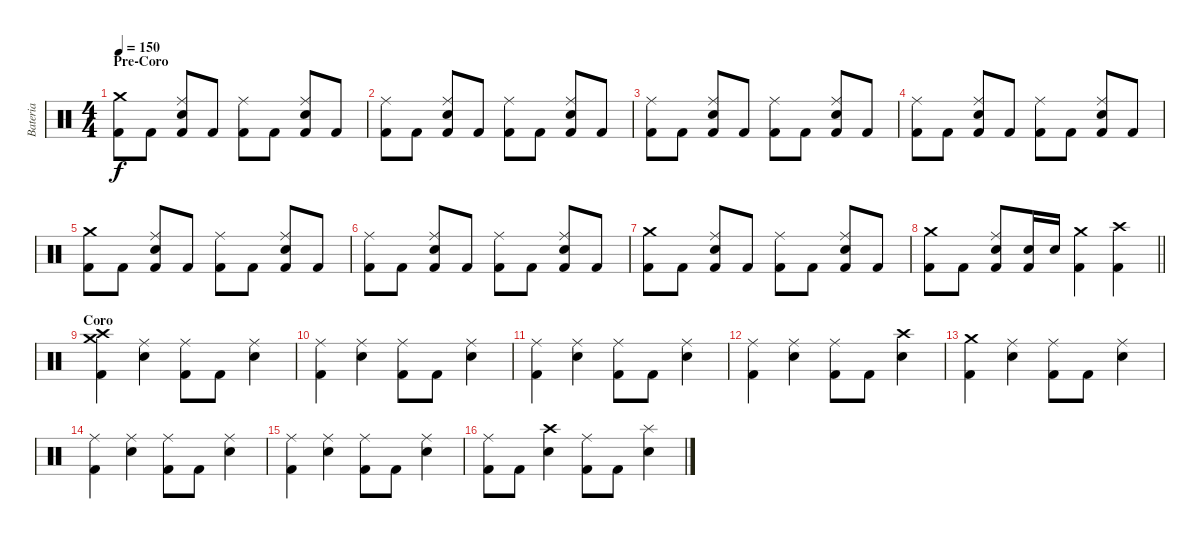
\track ("Bateria" "Bateria") {instrument percussion}
\staff {score}
\articulation defaults
\ts (4 4)
\section ("" "Pre-Coro")
\tempo 150
\clef neutral
\ks c
("Crash medium (hit)" "Kick (hit) 2").8{dy f} "Kick (hit) 2".8 ("Ride (middle)" "Snare (hit) 2" "Kick (hit) 2").8 "Kick (hit) 2".8 ("Ride (middle)" "Kick (hit) 2").8 "Kick (hit) 2".8 ("Ride (middle)" "Snare (hit) 2" "Kick (hit) 2").8 "Kick (hit) 2".8 |
("Ride (middle)" "Kick (hit) 2").8 "Kick (hit) 2".8 ("Ride (middle)" "Snare (hit) 2" "Kick (hit) 2").8 "Kick (hit) 2".8 ("Ride (middle)" "Kick (hit) 2").8 "Kick (hit) 2".8 ("Ride (middle)" "Snare (hit) 2" "Kick (hit) 2").8 "Kick (hit) 2".8 |
("Ride (middle)" "Kick (hit) 2").8 "Kick (hit) 2".8 ("Ride (middle)" "Snare (hit) 2" "Kick (hit) 2").8 "Kick (hit) 2".8 ("Ride (middle)" "Kick (hit) 2").8 "Kick (hit) 2".8 ("Ride (middle)" "Snare (hit) 2" "Kick (hit) 2").8 "Kick (hit) 2".8 |
("Ride (middle)" "Kick (hit) 2").8 "Kick (hit) 2".8 ("Ride (middle)" "Snare (hit) 2" "Kick (hit) 2").8 "Kick (hit) 2".8 ("Ride (middle)" "Kick (hit) 2").8 "Kick (hit) 2".8 ("Ride (middle)" "Snare (hit) 2" "Kick (hit) 2").8 "Kick (hit) 2".8 |
("Crash medium (hit)" "Kick (hit) 2").8 "Kick (hit) 2".8 ("Ride (middle)" "Snare (hit) 2" "Kick (hit) 2").8 "Kick (hit) 2".8 ("Ride (middle)" "Kick (hit) 2").8 "Kick (hit) 2".8 ("Ride (middle)" "Snare (hit) 2" "Kick (hit) 2").8 "Kick (hit) 2".8 |
("Ride (middle)" "Kick (hit) 2").8 "Kick (hit) 2".8 ("Ride (middle)" "Snare (hit) 2" "Kick (hit) 2").8 "Kick (hit) 2".8 ("Ride (middle)" "Kick (hit) 2").8 "Kick (hit) 2".8 ("Ride (middle)" "Snare (hit) 2" "Kick (hit) 2").8 "Kick (hit) 2".8 |
("Crash medium (hit)" "Kick (hit) 2").8 "Kick (hit) 2".8 ("Ride (middle)" "Snare (hit) 2" "Kick (hit) 2").8 "Kick (hit) 2".8 ("Ride (middle)" "Kick (hit) 2").8 "Kick (hit) 2".8 ("Ride (middle)" "Snare (hit) 2" "Kick (hit) 2").8 "Kick (hit) 2".8 |
\barLineRight lightlight
("Crash medium (hit)" "Kick (hit) 2").8 "Kick (hit) 2".8 ("Ride (middle)" "Snare (hit) 2" "Kick (hit) 2").8 ("Snare (hit) 2" "Kick (hit) 2").16 "Snare (hit) 2".16 ("Crash medium (hit)" "Kick (hit) 2").4 ("Crash high (hit)" "Kick (hit) 2").4 |
\section ("" "Coro")
("Crash medium (hit)" "Crash high (hit)" "Kick (hit) 2").4 ("Ride (middle)" "Snare (hit) 2").4 ("Ride (middle)" "Kick (hit) 2").8 "Kick (hit) 2".8 ("Ride (middle)" "Snare (hit) 2").4 |
("Ride (middle)" "Kick (hit) 2").4 ("Ride (middle)" "Snare (hit) 2").4 ("Ride (middle)" "Kick (hit) 2").8 "Kick (hit) 2".8 ("Ride (middle)" "Snare (hit) 2").4 |
("Ride (middle)" "Kick (hit) 2").4 ("Ride (middle)" "Snare (hit) 2").4 ("Ride (middle)" "Kick (hit) 2").8 "Kick (hit) 2".8 ("Ride (middle)" "Snare (hit) 2").4 |
("Ride (middle)" "Kick (hit) 2").4 ("Ride (middle)" "Snare (hit) 2").4 ("Ride (middle)" "Kick (hit) 2").8 "Kick (hit) 2".8 ("Crash high (hit)" "Snare (hit) 2").4 |
("Crash medium (hit)" "Kick (hit) 2").4 ("Ride (middle)" "Snare (hit) 2").4 ("Ride (middle)" "Kick (hit) 2").8 "Kick (hit) 2".8 ("Ride (middle)" "Snare (hit) 2").4 |
("Ride (middle)" "Kick (hit) 2").4 ("Ride (middle)" "Snare (hit) 2").4 ("Ride (middle)" "Kick (hit) 2").8 "Kick (hit) 2".8 ("Ride (middle)" "Snare (hit) 2").4 |
("Ride (middle)" "Kick (hit) 2").4 ("Ride (middle)" "Snare (hit) 2").4 ("Ride (middle)" "Kick (hit) 2").8 "Kick (hit) 2".8 ("Ride (middle)" "Snare (hit) 2").4 |
("Ride (middle)" "Kick (hit) 2").8 "Kick (hit) 2".8 ("Crash high (hit)" "Snare (hit) 2").4 ("Ride (middle)" "Kick (hit) 2").8 "Kick (hit) 2".8 ("Splash (hit)" "Snare (hit) 2").4
